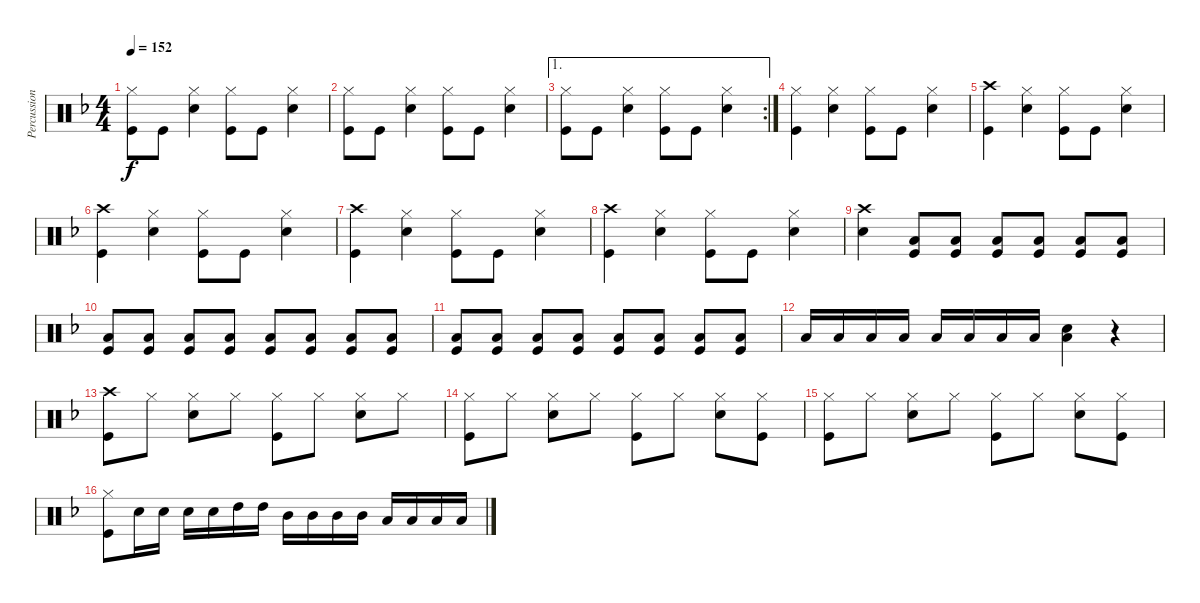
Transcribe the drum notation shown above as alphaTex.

\track ("Percussion" "Percussion") {instrument percussion}
\staff {score}
\articulation defaults
\ts (4 4)
\tempo 152
\clef neutral
\ks f
("Hi-Hat (closed)" "Kick (hit)").8{dy f} "Kick (hit)".8 ("Hi-Hat (closed)" "Electric Snare (hit)").4 ("Hi-Hat (closed)" "Kick (hit)").8 "Kick (hit)".8 ("Hi-Hat (closed)" "Electric Snare (hit)").4 |
("Hi-Hat (closed)" "Kick (hit)").8 "Kick (hit)".8 ("Hi-Hat (closed)" "Electric Snare (hit)").4 ("Hi-Hat (closed)" "Kick (hit)").8 "Kick (hit)".8 ("Hi-Hat (closed)" "Electric Snare (hit)").4 |
\ae 1
\rc 2
("Hi-Hat (closed)" "Kick (hit)").8 "Kick (hit)".8 ("Hi-Hat (closed)" "Electric Snare (hit)").4 ("Hi-Hat (closed)" "Kick (hit)").8 "Kick (hit)".8 ("Hi-Hat (closed)" "Electric Snare (hit)").4 |
("Hi-Hat (closed)" "Kick (hit)").4 ("Hi-Hat (closed)" "Electric Snare (hit)").4 ("Hi-Hat (closed)" "Kick (hit)").8 "Kick (hit)".8 ("Hi-Hat (closed)" "Electric Snare (hit)").4 |
("Crash high (hit)" "Kick (hit)").4 ("Hi-Hat (closed)" "Electric Snare (hit)").4 ("Hi-Hat (closed)" "Kick (hit)").8 "Kick (hit)".8 ("Hi-Hat (closed)" "Electric Snare (hit)").4 |
("Crash high (hit)" "Kick (hit)").4 ("Hi-Hat (closed)" "Electric Snare (hit)").4 ("Hi-Hat (closed)" "Kick (hit)").8 "Kick (hit)".8 ("Hi-Hat (closed)" "Electric Snare (hit)").4 |
("Crash high (hit)" "Kick (hit)").4 ("Hi-Hat (closed)" "Electric Snare (hit)").4 ("Hi-Hat (closed)" "Kick (hit)").8 "Kick (hit)".8 ("Hi-Hat (closed)" "Electric Snare (hit)").4 |
("Crash high (hit)" "Kick (hit)").4 ("Hi-Hat (closed)" "Electric Snare (hit)").4 ("Hi-Hat (closed)" "Kick (hit)").8 "Kick (hit)".8 ("Hi-Hat (closed)" "Electric Snare (hit)").4 |
("Crash high (hit)" "Electric Snare (hit)").4 ("Low Tom (hit)" "Kick (hit)").8 ("Low Tom (hit)" "Kick (hit)").8 ("Low Tom (hit)" "Kick (hit)").8 ("Low Tom (hit)" "Kick (hit)").8 ("Low Tom (hit)" "Kick (hit)").8 ("Low Tom (hit)" "Kick (hit)").8 |
("Kick (hit)" "Low Tom (hit)").8 ("Low Tom (hit)" "Kick (hit)").8 ("Low Tom (hit)" "Kick (hit)").8 ("Low Tom (hit)" "Kick (hit)").8 ("Low Tom (hit)" "Kick (hit)").8 ("Low Tom (hit)" "Kick (hit)").8 ("Low Tom (hit)" "Kick (hit)").8 ("Low Tom (hit)" "Kick (hit)").8 |
("Kick (hit)" "Low Tom (hit)").8 ("Low Tom (hit)" "Kick (hit)").8 ("Low Tom (hit)" "Kick (hit)").8 ("Low Tom (hit)" "Kick (hit)").8 ("Low Tom (hit)" "Kick (hit)").8 ("Low Tom (hit)" "Kick (hit)").8 ("Low Tom (hit)" "Kick (hit)").8 ("Low Tom (hit)" "Kick (hit)").8 |
"Low Tom (hit)".16 "Low Tom (hit)".16 "Low Tom (hit)".16 "Low Tom (hit)".16 "Low Tom (hit)".16 "Low Tom (hit)".16 "Low Tom (hit)".16 "Low Tom (hit)".16 ("Low Tom (hit)" "Electric Snare (hit)").4 r.4 |
("Crash high (hit)" "Kick (hit)").8 "Hi-Hat (closed)".8 ("Hi-Hat (closed)" "Electric Snare (hit)").8 "Hi-Hat (closed)".8 ("Hi-Hat (closed)" "Kick (hit)").8 "Hi-Hat (closed)".8 ("Hi-Hat (closed)" "Electric Snare (hit)").8 "Hi-Hat (closed)".8 |
("Hi-Hat (closed)" "Kick (hit)").8 "Hi-Hat (closed)".8 ("Hi-Hat (closed)" "Electric Snare (hit)").8 "Hi-Hat (closed)".8 ("Hi-Hat (closed)" "Kick (hit)").8 "Hi-Hat (closed)".8 ("Hi-Hat (closed)" "Electric Snare (hit)").8 ("Hi-Hat (closed)" "Kick (hit)").8 |
("Hi-Hat (closed)" "Kick (hit)").8 "Hi-Hat (closed)".8 ("Hi-Hat (closed)" "Electric Snare (hit)").8 "Hi-Hat (closed)".8 ("Hi-Hat (closed)" "Kick (hit)").8 "Hi-Hat (closed)".8 ("Hi-Hat (closed)" "Electric Snare (hit)").8 ("Hi-Hat (closed)" "Kick (hit)").8 |
("Hi-Hat (closed)" "Kick (hit)").8 "Electric Snare (hit)".16 "Electric Snare (hit)".16 "Electric Snare (hit)".16 "Electric Snare (hit)".16 "High Tom (hit)".16 "High Tom (hit)".16 "Mid Tom (hit)".16 "Mid Tom (hit)".16 "Mid Tom (hit)".16 "Mid Tom (hit)".16 "Low Tom (hit)".16 "Low Tom (hit)".16 "Low Tom (hit)".16 "Low Tom (hit)".16
